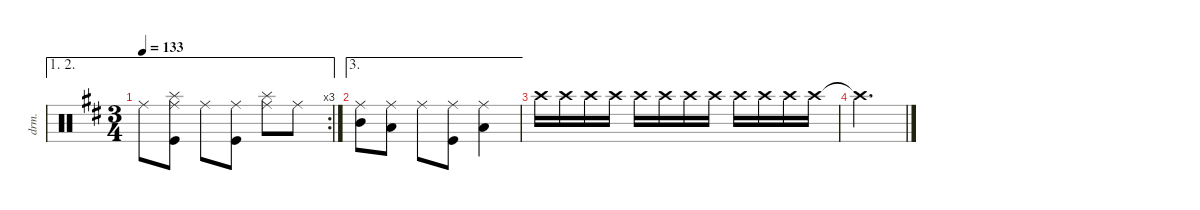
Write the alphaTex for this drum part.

\defaultSystemsLayout 4
\hideDynamics
\bracketExtendMode nobrackets
\otherSystemsTrackNameOrientation horizontal
\track ("Drums" "drm.") {defaultSystemsLayout 4 instrument percussion}
\staff {score}
\articulation defaults
\ae (1 2)
\rc 3
\ts (3 4)
\tempo 133
\clef neutral
\ks bminor "Ride (middle)"{acc forcenatural}.8{dy mp beam Down}
("Ride (middle)"{acc forcenatural} "Splash (hit)"{acc forcenatural} "Kick (hit)"{acc forcenatural}).8{dy f beam Down} "Ride (middle)"{acc forcenatural}.8{dy mp beam Down} ("Ride (middle)"{acc forcenatural} "Kick (hit)"{acc forcenatural}).8{dy p beam Down} ("Ride (middle)"{acc forcenatural} "Splash (hit)"{acc forcenatural}).8{dy f beam Down} "Ride (middle)"{acc forcenatural}.8{beam Down} |
\ae 3
("Ride (middle)"{acc forcenatural} "Mid Tom (hit)"{acc forcenatural}).8{dy mp beam Down} ("Ride (middle)"{acc forcenatural} "Low Tom (hit)"{acc forcenatural}).8{dy f beam Down} "Ride (middle)"{acc forcenatural}.8{dy mp beam Down} ("Ride (middle)"{acc forcenatural} "Kick (hit)"{acc forcenatural}).8{dy p beam Down} ("Ride (middle)"{acc forcenatural} "Low Tom (hit)"{acc forcenatural}).4{dy f beam Down} |
"Crash high (hit)"{acc forcenatural}.16{dy pp beam Down} "Crash high (hit)"{acc forcenatural}.16{beam Down} "Crash high (hit)"{acc forcenatural}.16{dy p beam Down} "Crash high (hit)"{acc forcenatural}.16{beam Down} "Crash high (hit)"{acc forcenatural}.16{beam Down} "Crash high (hit)"{acc forcenatural}.16{beam Down} "Crash high (hit)"{acc forcenatural}.16{beam Down} "Crash high (hit)"{acc forcenatural}.16{beam Down} "Crash high (hit)"{acc forcenatural}.16{dy mp beam Down} "Crash high (hit)"{acc forcenatural}.16{beam Down} "Crash high (hit)"{acc forcenatural}.16{beam Down} "Crash high (hit)"{acc forcenatural}.16{beam Down} |
"Crash high (hit)"{t acc forcenatural}.2{d dy mf beam Down}
